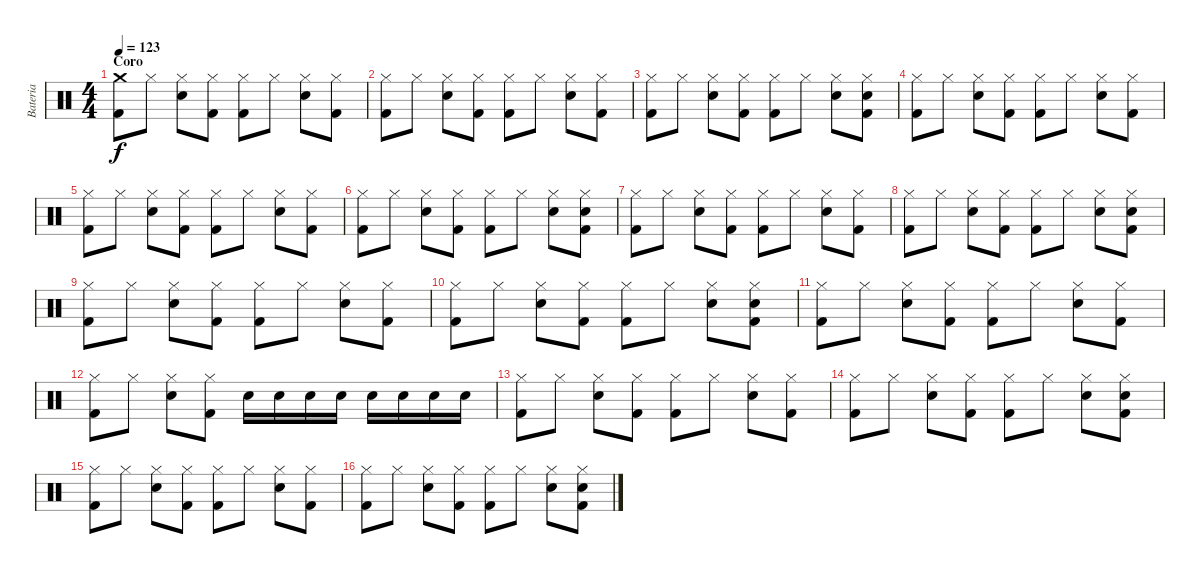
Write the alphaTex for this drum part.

\track ("Bateria" "Bateria") {instrument percussion}
\staff {score}
\articulation defaults
\ts (4 4)
\section ("" "Coro")
\tempo 123
\clef neutral
\ks c
("Crash medium (hit)" "Kick (hit) 2").8{dy f} "Hi-Hat (closed)".8 ("Hi-Hat (closed)" "Snare (hit) 2").8 ("Hi-Hat (closed)" "Kick (hit) 2").8 ("Hi-Hat (closed)" "Kick (hit) 2").8 "Hi-Hat (closed)".8 ("Hi-Hat (closed)" "Snare (hit) 2").8 ("Hi-Hat (closed)" "Kick (hit) 2").8 |
("Hi-Hat (closed)" "Kick (hit) 2").8 "Hi-Hat (closed)".8 ("Hi-Hat (closed)" "Snare (hit) 2").8 ("Hi-Hat (closed)" "Kick (hit) 2").8 ("Hi-Hat (closed)" "Kick (hit) 2").8 "Hi-Hat (closed)".8 ("Hi-Hat (closed)" "Snare (hit) 2").8 ("Hi-Hat (closed)" "Kick (hit) 2").8 |
("Hi-Hat (closed)" "Kick (hit) 2").8 "Hi-Hat (closed)".8 ("Hi-Hat (closed)" "Snare (hit) 2").8 ("Hi-Hat (closed)" "Kick (hit) 2").8 ("Hi-Hat (closed)" "Kick (hit) 2").8 "Hi-Hat (closed)".8 ("Hi-Hat (closed)" "Snare (hit) 2").8 ("Hi-Hat (closed)" "Snare (hit) 2" "Kick (hit) 2").8 |
("Hi-Hat (closed)" "Kick (hit) 2").8 "Hi-Hat (closed)".8 ("Hi-Hat (closed)" "Snare (hit) 2").8 ("Hi-Hat (closed)" "Kick (hit) 2").8 ("Hi-Hat (closed)" "Kick (hit) 2").8 "Hi-Hat (closed)".8 ("Hi-Hat (closed)" "Snare (hit) 2").8 ("Hi-Hat (closed)" "Kick (hit) 2").8 |
("Hi-Hat (closed)" "Kick (hit) 2").8 "Hi-Hat (closed)".8 ("Hi-Hat (closed)" "Snare (hit) 2").8 ("Hi-Hat (closed)" "Kick (hit) 2").8 ("Hi-Hat (closed)" "Kick (hit) 2").8 "Hi-Hat (closed)".8 ("Hi-Hat (closed)" "Snare (hit) 2").8 ("Hi-Hat (closed)" "Kick (hit) 2").8 |
("Hi-Hat (closed)" "Kick (hit) 2").8 "Hi-Hat (closed)".8 ("Hi-Hat (closed)" "Snare (hit) 2").8 ("Hi-Hat (closed)" "Kick (hit) 2").8 ("Hi-Hat (closed)" "Kick (hit) 2").8 "Hi-Hat (closed)".8 ("Hi-Hat (closed)" "Snare (hit) 2").8 ("Hi-Hat (closed)" "Snare (hit) 2" "Kick (hit) 2").8 |
("Hi-Hat (closed)" "Kick (hit) 2").8 "Hi-Hat (closed)".8 ("Hi-Hat (closed)" "Snare (hit) 2").8 ("Hi-Hat (closed)" "Kick (hit) 2").8 ("Hi-Hat (closed)" "Kick (hit) 2").8 "Hi-Hat (closed)".8 ("Hi-Hat (closed)" "Snare (hit) 2").8 ("Hi-Hat (closed)" "Kick (hit) 2").8 |
("Hi-Hat (closed)" "Kick (hit) 2").8 "Hi-Hat (closed)".8 ("Hi-Hat (closed)" "Snare (hit) 2").8 ("Hi-Hat (closed)" "Kick (hit) 2").8 ("Hi-Hat (closed)" "Kick (hit) 2").8 "Hi-Hat (closed)".8 ("Hi-Hat (closed)" "Snare (hit) 2").8 ("Hi-Hat (closed)" "Snare (hit) 2" "Kick (hit) 2").8 |
("Hi-Hat (closed)" "Kick (hit) 2").8 "Hi-Hat (closed)".8 ("Hi-Hat (closed)" "Snare (hit) 2").8 ("Hi-Hat (closed)" "Kick (hit) 2").8 ("Hi-Hat (closed)" "Kick (hit) 2").8 "Hi-Hat (closed)".8 ("Hi-Hat (closed)" "Snare (hit) 2").8 ("Hi-Hat (closed)" "Kick (hit) 2").8 |
("Hi-Hat (closed)" "Kick (hit) 2").8 "Hi-Hat (closed)".8 ("Hi-Hat (closed)" "Snare (hit) 2").8 ("Hi-Hat (closed)" "Kick (hit) 2").8 ("Hi-Hat (closed)" "Kick (hit) 2").8 "Hi-Hat (closed)".8 ("Hi-Hat (closed)" "Snare (hit) 2").8 ("Hi-Hat (closed)" "Snare (hit) 2" "Kick (hit) 2").8 |
("Hi-Hat (closed)" "Kick (hit) 2").8 "Hi-Hat (closed)".8 ("Hi-Hat (closed)" "Snare (hit) 2").8 ("Hi-Hat (closed)" "Kick (hit) 2").8 ("Hi-Hat (closed)" "Kick (hit) 2").8 "Hi-Hat (closed)".8 ("Hi-Hat (closed)" "Snare (hit) 2").8 ("Hi-Hat (closed)" "Kick (hit) 2").8 |
("Hi-Hat (closed)" "Kick (hit) 2").8 "Hi-Hat (closed)".8 ("Hi-Hat (closed)" "Snare (hit) 2").8 ("Hi-Hat (closed)" "Kick (hit) 2").8 "Snare (hit) 2".16 "Snare (hit) 2".16 "Snare (hit) 2".16 "Snare (hit) 2".16 "Snare (hit) 2".16 "Snare (hit) 2".16 "Snare (hit) 2".16 "Snare (hit) 2".16 |
("Hi-Hat (closed)" "Kick (hit) 2").8 "Hi-Hat (closed)".8 ("Hi-Hat (closed)" "Snare (hit) 2").8 ("Hi-Hat (closed)" "Kick (hit) 2").8 ("Hi-Hat (closed)" "Kick (hit) 2").8 "Hi-Hat (closed)".8 ("Hi-Hat (closed)" "Snare (hit) 2").8 ("Hi-Hat (closed)" "Kick (hit) 2").8 |
("Hi-Hat (closed)" "Kick (hit) 2").8 "Hi-Hat (closed)".8 ("Hi-Hat (closed)" "Snare (hit) 2").8 ("Hi-Hat (closed)" "Kick (hit) 2").8 ("Hi-Hat (closed)" "Kick (hit) 2").8 "Hi-Hat (closed)".8 ("Hi-Hat (closed)" "Snare (hit) 2").8 ("Hi-Hat (closed)" "Snare (hit) 2" "Kick (hit) 2").8 |
("Hi-Hat (closed)" "Kick (hit) 2").8 "Hi-Hat (closed)".8 ("Hi-Hat (closed)" "Snare (hit) 2").8 ("Hi-Hat (closed)" "Kick (hit) 2").8 ("Hi-Hat (closed)" "Kick (hit) 2").8 "Hi-Hat (closed)".8 ("Hi-Hat (closed)" "Snare (hit) 2").8 ("Hi-Hat (closed)" "Kick (hit) 2").8 |
("Hi-Hat (closed)" "Kick (hit) 2").8 "Hi-Hat (closed)".8 ("Hi-Hat (closed)" "Snare (hit) 2").8 ("Hi-Hat (closed)" "Kick (hit) 2").8 ("Hi-Hat (closed)" "Kick (hit) 2").8 "Hi-Hat (closed)".8 ("Hi-Hat (closed)" "Snare (hit) 2").8 ("Hi-Hat (closed)" "Snare (hit) 2" "Kick (hit) 2").8
